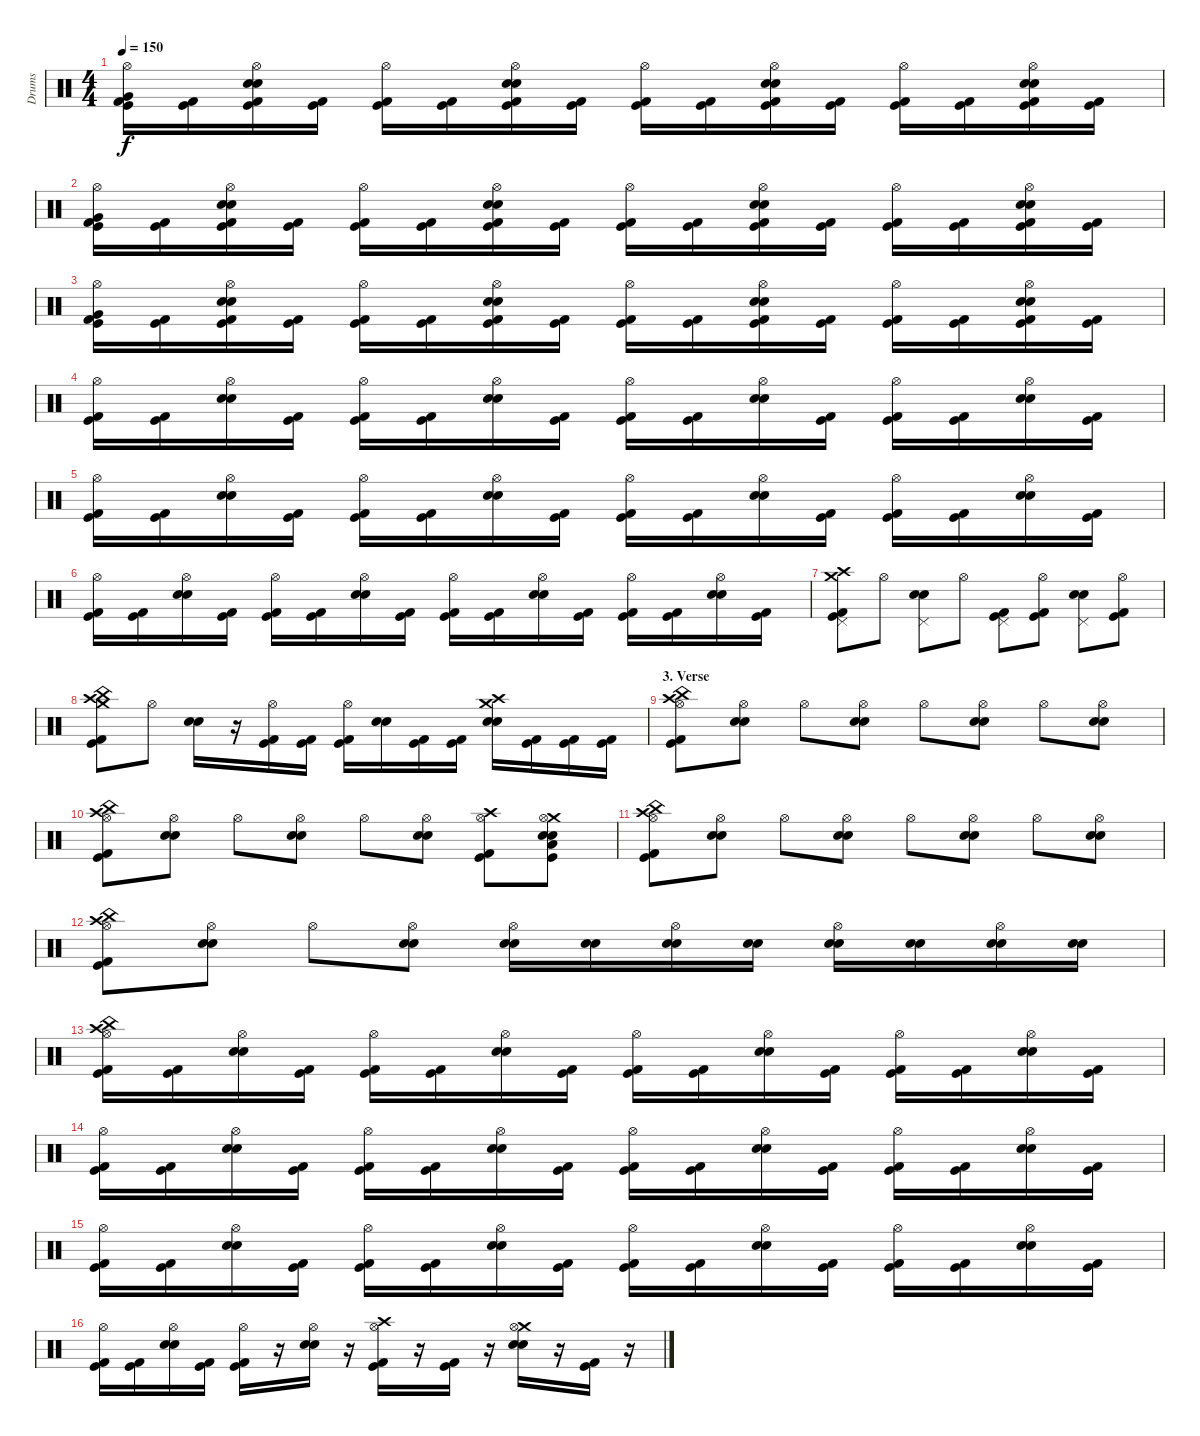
\track ("Drums" "Drums") {instrument percussion}
\staff {score}
\articulation defaults
\ts (4 4)
\tempo 150
\clef neutral
\ks c
("Hi-Hat (open)" "Very Low Tom (hit)" "Kick (hit) 2" "Kick (hit)").16{dy f} ("Kick (hit) 2" "Kick (hit)").16 ("Hi-Hat (open)" "Snare (hit) 2" "Electric Snare (hit)" "Kick (hit) 2" "Kick (hit)").16 ("Kick (hit) 2" "Kick (hit)").16 ("Hi-Hat (open)" "Kick (hit) 2" "Kick (hit)").16 ("Kick (hit) 2" "Kick (hit)").16 ("Hi-Hat (open)" "Snare (hit) 2" "Electric Snare (hit)" "Kick (hit)" "Kick (hit) 2").16 ("Kick (hit) 2" "Kick (hit)").16 ("Hi-Hat (open)" "Kick (hit) 2" "Kick (hit)").16 ("Kick (hit) 2" "Kick (hit)").16 ("Hi-Hat (open)" "Snare (hit) 2" "Electric Snare (hit)" "Kick (hit) 2" "Kick (hit)").16 ("Kick (hit) 2" "Kick (hit)").16 ("Hi-Hat (open)" "Kick (hit) 2" "Kick (hit)").16 ("Kick (hit) 2" "Kick (hit)").16 ("Hi-Hat (open)" "Snare (hit) 2" "Electric Snare (hit)" "Kick (hit)" "Kick (hit) 2").16 ("Kick (hit) 2" "Kick (hit)").16 |
("Hi-Hat (open)" "Very Low Tom (hit)" "Kick (hit) 2" "Kick (hit)").16 ("Kick (hit) 2" "Kick (hit)").16 ("Hi-Hat (open)" "Snare (hit) 2" "Electric Snare (hit)" "Kick (hit) 2" "Kick (hit)").16 ("Kick (hit) 2" "Kick (hit)").16 ("Hi-Hat (open)" "Kick (hit) 2" "Kick (hit)").16 ("Kick (hit) 2" "Kick (hit)").16 ("Hi-Hat (open)" "Snare (hit) 2" "Electric Snare (hit)" "Kick (hit)" "Kick (hit) 2").16 ("Kick (hit) 2" "Kick (hit)").16 ("Hi-Hat (open)" "Kick (hit) 2" "Kick (hit)").16 ("Kick (hit) 2" "Kick (hit)").16 ("Hi-Hat (open)" "Snare (hit) 2" "Electric Snare (hit)" "Kick (hit) 2" "Kick (hit)").16 ("Kick (hit) 2" "Kick (hit)").16 ("Hi-Hat (open)" "Kick (hit) 2" "Kick (hit)").16 ("Kick (hit) 2" "Kick (hit)").16 ("Hi-Hat (open)" "Snare (hit) 2" "Electric Snare (hit)" "Kick (hit)" "Kick (hit) 2").16 ("Kick (hit) 2" "Kick (hit)").16 |
("Hi-Hat (open)" "Very Low Tom (hit)" "Kick (hit) 2" "Kick (hit)").16 ("Kick (hit) 2" "Kick (hit)").16 ("Hi-Hat (open)" "Snare (hit) 2" "Electric Snare (hit)" "Kick (hit) 2" "Kick (hit)").16 ("Kick (hit) 2" "Kick (hit)").16 ("Hi-Hat (open)" "Kick (hit) 2" "Kick (hit)").16 ("Kick (hit) 2" "Kick (hit)").16 ("Hi-Hat (open)" "Snare (hit) 2" "Electric Snare (hit)" "Kick (hit)" "Kick (hit) 2").16 ("Kick (hit) 2" "Kick (hit)").16 ("Hi-Hat (open)" "Kick (hit) 2" "Kick (hit)").16 ("Kick (hit) 2" "Kick (hit)").16 ("Hi-Hat (open)" "Snare (hit) 2" "Electric Snare (hit)" "Kick (hit) 2" "Kick (hit)").16 ("Kick (hit) 2" "Kick (hit)").16 ("Hi-Hat (open)" "Kick (hit) 2" "Kick (hit)").16 ("Kick (hit) 2" "Kick (hit)").16 ("Hi-Hat (open)" "Snare (hit) 2" "Electric Snare (hit)" "Kick (hit)" "Kick (hit) 2").16 ("Kick (hit) 2" "Kick (hit)").16 |
("Hi-Hat (open)" "Kick (hit) 2" "Kick (hit)").16 ("Kick (hit) 2" "Kick (hit)").16 ("Hi-Hat (open)" "Snare (hit) 2" "Electric Snare (hit)").16 ("Kick (hit) 2" "Kick (hit)").16 ("Hi-Hat (open)" "Kick (hit) 2" "Kick (hit)").16 ("Kick (hit) 2" "Kick (hit)").16 ("Hi-Hat (open)" "Snare (hit) 2" "Electric Snare (hit)").16 ("Kick (hit) 2" "Kick (hit)").16 ("Hi-Hat (open)" "Kick (hit) 2" "Kick (hit)").16 ("Kick (hit) 2" "Kick (hit)").16 ("Hi-Hat (open)" "Snare (hit) 2" "Electric Snare (hit)").16 ("Kick (hit) 2" "Kick (hit)").16 ("Hi-Hat (open)" "Kick (hit) 2" "Kick (hit)").16 ("Kick (hit) 2" "Kick (hit)").16 ("Hi-Hat (open)" "Snare (hit) 2" "Electric Snare (hit)").16 ("Kick (hit) 2" "Kick (hit)").16 |
("Hi-Hat (open)" "Kick (hit) 2" "Kick (hit)").16 ("Kick (hit) 2" "Kick (hit)").16 ("Hi-Hat (open)" "Snare (hit) 2" "Electric Snare (hit)").16 ("Kick (hit) 2" "Kick (hit)").16 ("Hi-Hat (open)" "Kick (hit) 2" "Kick (hit)").16 ("Kick (hit) 2" "Kick (hit)").16 ("Hi-Hat (open)" "Snare (hit) 2" "Electric Snare (hit)").16 ("Kick (hit) 2" "Kick (hit)").16 ("Hi-Hat (open)" "Kick (hit) 2" "Kick (hit)").16 ("Kick (hit) 2" "Kick (hit)").16 ("Hi-Hat (open)" "Snare (hit) 2" "Electric Snare (hit)").16 ("Kick (hit) 2" "Kick (hit)").16 ("Hi-Hat (open)" "Kick (hit) 2" "Kick (hit)").16 ("Kick (hit) 2" "Kick (hit)").16 ("Hi-Hat (open)" "Snare (hit) 2" "Electric Snare (hit)").16 ("Kick (hit) 2" "Kick (hit)").16 |
("Hi-Hat (open)" "Kick (hit) 2" "Kick (hit)").16 ("Kick (hit) 2" "Kick (hit)").16 ("Hi-Hat (open)" "Snare (hit) 2" "Electric Snare (hit)").16 ("Kick (hit) 2" "Kick (hit)").16 ("Hi-Hat (open)" "Kick (hit) 2" "Kick (hit)").16 ("Kick (hit) 2" "Kick (hit)").16 ("Hi-Hat (open)" "Snare (hit) 2" "Electric Snare (hit)").16 ("Kick (hit) 2" "Kick (hit)").16 ("Hi-Hat (open)" "Kick (hit) 2" "Kick (hit)").16 ("Kick (hit) 2" "Kick (hit)").16 ("Hi-Hat (open)" "Snare (hit) 2" "Electric Snare (hit)").16 ("Kick (hit) 2" "Kick (hit)").16 ("Hi-Hat (open)" "Kick (hit) 2" "Kick (hit)").16 ("Kick (hit) 2" "Kick (hit)").16 ("Hi-Hat (open)" "Snare (hit) 2" "Electric Snare (hit)").16 ("Kick (hit) 2" "Kick (hit)").16 |
("Crash high (hit)" "Pedal Hi-Hat (hit)" "Crash medium (hit)" "Kick (hit) 2" "Kick (hit)").8 "Hi-Hat (open)".8 ("Pedal Hi-Hat (hit)" "Electric Snare (hit)" "Snare (hit) 2").8 "Hi-Hat (open)".8 ("Pedal Hi-Hat (hit)" "Kick (hit) 2" "Kick (hit)").8 ("Hi-Hat (open)" "Kick (hit) 2" "Kick (hit)").8 ("Pedal Hi-Hat (hit)" "Electric Snare (hit)" "Snare (hit) 2").8 ("Hi-Hat (open)" "Kick (hit) 2" "Kick (hit)").8 |
("Crash high (hit)" "China (hit)" "Crash medium (hit)" "Kick (hit) 2" "Kick (hit)").8 "Hi-Hat (open)".8 ("Electric Snare (hit)" "Snare (hit) 2").16 r.16 ("Hi-Hat (open)" "Kick (hit) 2" "Kick (hit)").16 ("Kick (hit) 2" "Kick (hit)").16 ("Hi-Hat (open)" "Kick (hit) 2" "Kick (hit)").16 ("Snare (hit) 2" "Electric Snare (hit)").16 ("Kick (hit) 2" "Kick (hit)").16 ("Kick (hit) 2" "Kick (hit)").16 ("Crash medium (hit)" "Crash high (hit)" "Electric Snare (hit)" "Snare (hit) 2").16 ("Kick (hit) 2" "Kick (hit)").16 ("Kick (hit) 2" "Kick (hit)").16 ("Kick (hit) 2" "Kick (hit)").16 |
\section ("" "3. Verse")
("Crash high (hit)" "Hi-Hat (open)" "China (hit)" "Kick (hit) 2" "Kick (hit)").8 ("Hi-Hat (open)" "Electric Snare (hit)" "Snare (hit) 2").8 "Hi-Hat (open)".8 ("Hi-Hat (open)" "Electric Snare (hit)" "Snare (hit) 2").8 "Hi-Hat (open)".8 ("Hi-Hat (open)" "Electric Snare (hit)" "Snare (hit) 2").8 "Hi-Hat (open)".8 ("Hi-Hat (open)" "Electric Snare (hit)" "Snare (hit) 2").8 |
("Crash high (hit)" "Hi-Hat (open)" "China (hit)" "Kick (hit) 2" "Kick (hit)").8 ("Hi-Hat (open)" "Electric Snare (hit)" "Snare (hit) 2").8 "Hi-Hat (open)".8 ("Hi-Hat (open)" "Electric Snare (hit)" "Snare (hit) 2").8 "Hi-Hat (open)".8 ("Hi-Hat (open)" "Electric Snare (hit)" "Snare (hit) 2").8 ("Crash high (hit)" "Hi-Hat (open)" "Kick (hit) 2" "Kick (hit)").8 ("Crash medium (hit)" "Hi-Hat (open)" "Electric Snare (hit)" "Snare (hit) 2" "Low Tom (hit)" "Kick (hit)").8 |
("Crash high (hit)" "Hi-Hat (open)" "China (hit)" "Kick (hit) 2" "Kick (hit)").8 ("Hi-Hat (open)" "Electric Snare (hit)" "Snare (hit) 2").8 "Hi-Hat (open)".8 ("Hi-Hat (open)" "Electric Snare (hit)" "Snare (hit) 2").8 "Hi-Hat (open)".8 ("Hi-Hat (open)" "Electric Snare (hit)" "Snare (hit) 2").8 "Hi-Hat (open)".8 ("Hi-Hat (open)" "Electric Snare (hit)" "Snare (hit) 2").8 |
("Crash high (hit)" "Hi-Hat (open)" "China (hit)" "Kick (hit) 2" "Kick (hit)").8 ("Hi-Hat (open)" "Electric Snare (hit)" "Snare (hit) 2").8 "Hi-Hat (open)".8 ("Hi-Hat (open)" "Electric Snare (hit)" "Snare (hit) 2").8 ("Hi-Hat (open)" "Snare (hit) 2" "Electric Snare (hit)").16 ("Electric Snare (hit)" "Snare (hit) 2").16 ("Hi-Hat (open)" "Electric Snare (hit)" "Snare (hit) 2").16 ("Electric Snare (hit)" "Snare (hit) 2").16 ("Hi-Hat (open)" "Electric Snare (hit)" "Snare (hit) 2").16 ("Electric Snare (hit)" "Snare (hit) 2").16 ("Hi-Hat (open)" "Electric Snare (hit)" "Snare (hit) 2").16 ("Electric Snare (hit)" "Snare (hit) 2").16 |
("Crash high (hit)" "Hi-Hat (open)" "China (hit)" "Kick (hit) 2" "Kick (hit)").16 ("Kick (hit) 2" "Kick (hit)").16 ("Hi-Hat (open)" "Snare (hit) 2" "Electric Snare (hit)").16 ("Kick (hit) 2" "Kick (hit)").16 ("Hi-Hat (open)" "Kick (hit) 2" "Kick (hit)").16 ("Kick (hit) 2" "Kick (hit)").16 ("Hi-Hat (open)" "Snare (hit) 2" "Electric Snare (hit)").16 ("Kick (hit) 2" "Kick (hit)").16 ("Hi-Hat (open)" "Kick (hit) 2" "Kick (hit)").16 ("Kick (hit) 2" "Kick (hit)").16 ("Hi-Hat (open)" "Snare (hit) 2" "Electric Snare (hit)").16 ("Kick (hit) 2" "Kick (hit)").16 ("Hi-Hat (open)" "Kick (hit) 2" "Kick (hit)").16 ("Kick (hit) 2" "Kick (hit)").16 ("Hi-Hat (open)" "Snare (hit) 2" "Electric Snare (hit)").16 ("Kick (hit) 2" "Kick (hit)").16 |
("Hi-Hat (open)" "Kick (hit) 2" "Kick (hit)").16 ("Kick (hit) 2" "Kick (hit)").16 ("Hi-Hat (open)" "Snare (hit) 2" "Electric Snare (hit)").16 ("Kick (hit) 2" "Kick (hit)").16 ("Hi-Hat (open)" "Kick (hit) 2" "Kick (hit)").16 ("Kick (hit) 2" "Kick (hit)").16 ("Hi-Hat (open)" "Snare (hit) 2" "Electric Snare (hit)").16 ("Kick (hit) 2" "Kick (hit)").16 ("Hi-Hat (open)" "Kick (hit) 2" "Kick (hit)").16 ("Kick (hit) 2" "Kick (hit)").16 ("Hi-Hat (open)" "Snare (hit) 2" "Electric Snare (hit)").16 ("Kick (hit) 2" "Kick (hit)").16 ("Hi-Hat (open)" "Kick (hit) 2" "Kick (hit)").16 ("Kick (hit) 2" "Kick (hit)").16 ("Hi-Hat (open)" "Snare (hit) 2" "Electric Snare (hit)").16 ("Kick (hit) 2" "Kick (hit)").16 |
("Hi-Hat (open)" "Kick (hit) 2" "Kick (hit)").16 ("Kick (hit) 2" "Kick (hit)").16 ("Hi-Hat (open)" "Snare (hit) 2" "Electric Snare (hit)").16 ("Kick (hit) 2" "Kick (hit)").16 ("Hi-Hat (open)" "Kick (hit) 2" "Kick (hit)").16 ("Kick (hit) 2" "Kick (hit)").16 ("Hi-Hat (open)" "Snare (hit) 2" "Electric Snare (hit)").16 ("Kick (hit) 2" "Kick (hit)").16 ("Hi-Hat (open)" "Kick (hit) 2" "Kick (hit)").16 ("Kick (hit) 2" "Kick (hit)").16 ("Hi-Hat (open)" "Snare (hit) 2" "Electric Snare (hit)").16 ("Kick (hit) 2" "Kick (hit)").16 ("Hi-Hat (open)" "Kick (hit) 2" "Kick (hit)").16 ("Kick (hit) 2" "Kick (hit)").16 ("Hi-Hat (open)" "Snare (hit) 2" "Electric Snare (hit)").16 ("Kick (hit) 2" "Kick (hit)").16 |
("Hi-Hat (open)" "Kick (hit) 2" "Kick (hit)").16 ("Kick (hit) 2" "Kick (hit)").16 ("Hi-Hat (open)" "Snare (hit) 2" "Electric Snare (hit)").16 ("Kick (hit) 2" "Kick (hit)").16 ("Hi-Hat (open)" "Kick (hit) 2" "Kick (hit)").16 r.16 ("Hi-Hat (open)" "Snare (hit) 2" "Electric Snare (hit)").16 r.16 ("Crash high (hit)" "Hi-Hat (open)" "Kick (hit) 2" "Kick (hit)").16 r.16 ("Kick (hit) 2" "Kick (hit)").16 r.16 ("Crash medium (hit)" "Hi-Hat (open)" "Snare (hit) 2" "Electric Snare (hit)").16 r.16 ("Kick (hit) 2" "Kick (hit)").16 r.16
